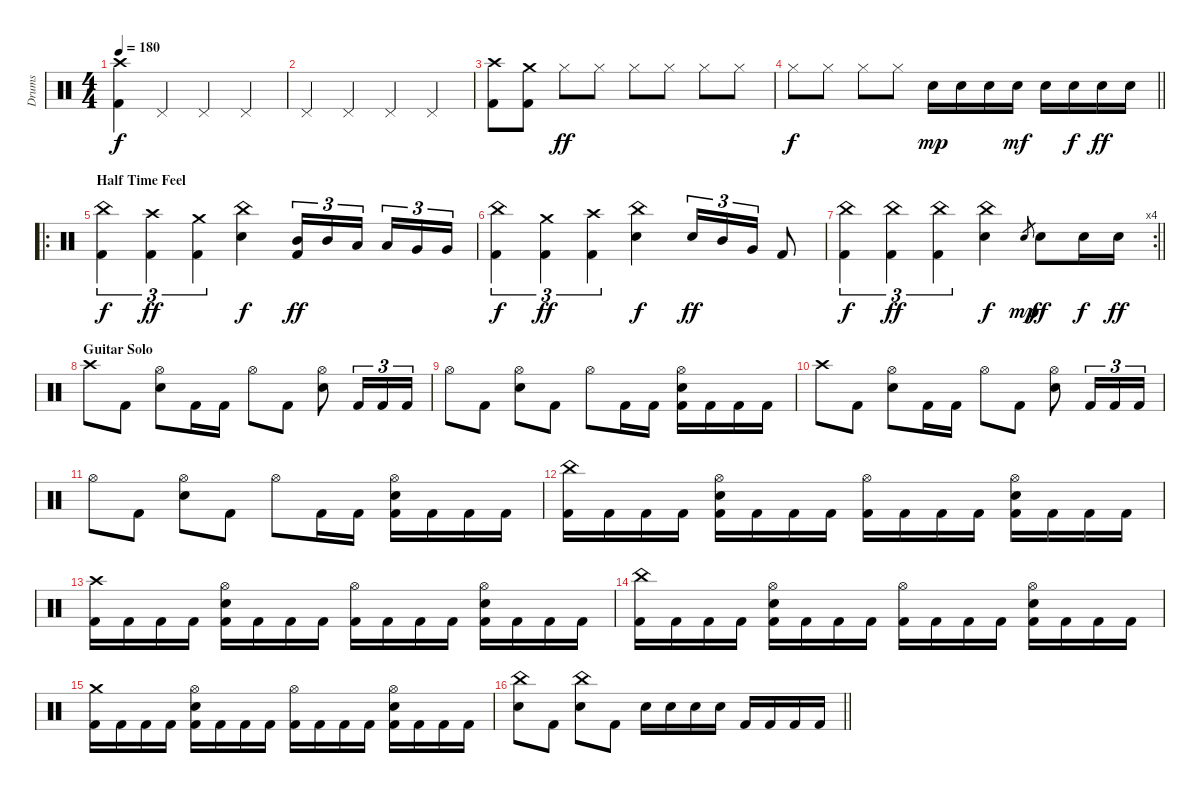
\track ("Drums" "Drums") {instrument percussion}
\staff {score}
\articulation defaults
\ts (4 4)
\tempo 180
\clef neutral
\ks c
("Kick (hit) 2" "Crash high (hit)").4{dy f} "Pedal Hi-Hat (hit)".4 "Pedal Hi-Hat (hit)".4 "Pedal Hi-Hat (hit)".4 |
"Pedal Hi-Hat (hit)".4 "Pedal Hi-Hat (hit)".4 "Pedal Hi-Hat (hit)".4 "Pedal Hi-Hat (hit)".4 |
("Kick (hit) 2" "Crash high (hit)").8 ("Kick (hit) 2" "Crash medium (hit)").8 "Hi-Hat (closed)".8{dy ff} "Hi-Hat (closed)".8 "Hi-Hat (closed)".8 "Hi-Hat (closed)".8 "Hi-Hat (closed)".8 "Hi-Hat (closed)".8 |
\barLineRight lightlight "Hi-Hat (closed)".8{dy f} "Hi-Hat (closed)".8 "Hi-Hat (closed)".8 "Hi-Hat (closed)".8 "Snare (hit) 2".16{dy mp} "Snare (hit) 2".16 "Snare (hit) 2".16 "Snare (hit) 2".16{dy mf} "Snare (hit) 2".16 "Snare (hit) 2".16{dy f} "Snare (hit) 2".16{dy ff} "Snare (hit) 2".16
|
\ro
\section ("" "Half Time Feel")
("China (hit)" "Kick (hit) 2").4{tu (3 2) dy f} ("Crash high (hit)" "Kick (hit) 2").4{tu (3 2) dy ff} ("Crash medium (hit)" "Kick (hit) 2").4{tu (3 2)} ("China (hit)" "Snare (hit) 2").4{dy f} ("Kick (hit) 2" "Mid Tom (hit)").16{tu (3 2) dy ff} "Mid Tom (hit)".16{tu (3 2)} "Low Tom (hit)".16{tu (3 2) beam splitsecondary} "Low Tom (hit)".16{tu (3 2)} "Very Low Tom (hit)".16{tu (3 2)} "Very Low Tom (hit)".16{tu (3 2)} |
("China (hit)" "Kick (hit) 2").4{tu (3 2) dy f} ("Crash medium (hit)" "Kick (hit) 2").4{tu (3 2) dy ff} ("Crash high (hit)" "Kick (hit) 2").4{tu (3 2)} ("China (hit)" "Snare (hit) 2").4{dy f} "Snare (hit) 2".16{tu (3 2) dy ff} "Mid Tom (hit)".16{tu (3 2)} "Very Low Tom (hit)".16{tu (3 2)} "Kick (hit) 2".8 |
\rc 4
\barLineRight lightlight
("China (hit)" "Kick (hit) 2").4{tu (3 2) dy f} ("China (hit)" "Kick (hit) 2").4{tu (3 2) dy ff} ("China (hit)" "Kick (hit) 2").4{tu (3 2)} ("China (hit)" "Snare (hit) 2").4{dy f} "Snare (hit) 2".8{gr dy mp} "Snare (hit) 2".8{dy ff} "Snare (hit) 2".16{dy f} "Snare (hit) 2".16{dy ff} |
\section ("" "Guitar Solo")
"Crash high (hit)".8 "Kick (hit) 2".8 ("Hi-Hat (open)" "Snare (hit) 2").8 "Kick (hit) 2".16 "Kick (hit) 2".16 "Hi-Hat (open)".8 "Kick (hit) 2".8 ("Hi-Hat (open)" "Snare (hit) 2").8 "Kick (hit) 2".16{tu (3 2)} "Kick (hit) 2".16{tu (3 2)} "Kick (hit) 2".16{tu (3 2)} |
"Hi-Hat (open)".8 "Kick (hit) 2".8 ("Hi-Hat (open)" "Snare (hit) 2").8 "Kick (hit) 2".8 "Hi-Hat (open)".8 "Kick (hit) 2".16 "Kick (hit) 2".16 ("Hi-Hat (open)" "Kick (hit) 2" "Snare (hit) 2").16 "Kick (hit) 2".16 "Kick (hit) 2".16 "Kick (hit) 2".16 |
"Crash high (hit)".8 "Kick (hit) 2".8 ("Hi-Hat (open)" "Snare (hit) 2").8 "Kick (hit) 2".16 "Kick (hit) 2".16 "Hi-Hat (open)".8 "Kick (hit) 2".8 ("Hi-Hat (open)" "Snare (hit) 2").8 "Kick (hit) 2".16{tu (3 2)} "Kick (hit) 2".16{tu (3 2)} "Kick (hit) 2".16{tu (3 2)} |
"Hi-Hat (open)".8 "Kick (hit) 2".8 ("Hi-Hat (open)" "Snare (hit) 2").8 "Kick (hit) 2".8 "Hi-Hat (open)".8 "Kick (hit) 2".16 "Kick (hit) 2".16 ("Hi-Hat (open)" "Kick (hit) 2" "Snare (hit) 2").16 "Kick (hit) 2".16 "Kick (hit) 2".16 "Kick (hit) 2".16 |
("China (hit)" "Kick (hit) 2").16 "Kick (hit) 2".16 "Kick (hit) 2".16 "Kick (hit) 2".16 ("Hi-Hat (open)" "Snare (hit) 2" "Kick (hit) 2").16 "Kick (hit) 2".16 "Kick (hit) 2".16 "Kick (hit) 2".16 ("Hi-Hat (open)" "Kick (hit) 2").16 "Kick (hit) 2".16 "Kick (hit) 2".16 "Kick (hit) 2".16 ("Hi-Hat (open)" "Snare (hit) 2" "Kick (hit) 2").16 "Kick (hit) 2".16 "Kick (hit) 2".16 "Kick (hit) 2".16 |
("Crash high (hit)" "Kick (hit) 2").16 "Kick (hit) 2".16 "Kick (hit) 2".16 "Kick (hit) 2".16 ("Hi-Hat (open)" "Snare (hit) 2" "Kick (hit) 2").16 "Kick (hit) 2".16 "Kick (hit) 2".16 "Kick (hit) 2".16 ("Hi-Hat (open)" "Kick (hit) 2").16 "Kick (hit) 2".16 "Kick (hit) 2".16 "Kick (hit) 2".16 ("Hi-Hat (open)" "Snare (hit) 2" "Kick (hit) 2").16 "Kick (hit) 2".16 "Kick (hit) 2".16 "Kick (hit) 2".16 |
("China (hit)" "Kick (hit) 2").16 "Kick (hit) 2".16 "Kick (hit) 2".16 "Kick (hit) 2".16 ("Hi-Hat (open)" "Snare (hit) 2" "Kick (hit) 2").16 "Kick (hit) 2".16 "Kick (hit) 2".16 "Kick (hit) 2".16 ("Hi-Hat (open)" "Kick (hit) 2").16 "Kick (hit) 2".16 "Kick (hit) 2".16 "Kick (hit) 2".16 ("Hi-Hat (open)" "Snare (hit) 2" "Kick (hit) 2").16 "Kick (hit) 2".16 "Kick (hit) 2".16 "Kick (hit) 2".16 |
("Crash medium (hit)" "Kick (hit) 2").16 "Kick (hit) 2".16 "Kick (hit) 2".16 "Kick (hit) 2".16 ("Hi-Hat (open)" "Snare (hit) 2" "Kick (hit) 2").16 "Kick (hit) 2".16 "Kick (hit) 2".16 "Kick (hit) 2".16 ("Hi-Hat (open)" "Kick (hit) 2").16 "Kick (hit) 2".16 "Kick (hit) 2".16 "Kick (hit) 2".16 ("Hi-Hat (open)" "Snare (hit) 2" "Kick (hit) 2").16 "Kick (hit) 2".16 "Kick (hit) 2".16 "Kick (hit) 2".16 |
\barLineRight lightlight
("China (hit)" "Snare (hit) 2").8 "Kick (hit) 2".8 ("China (hit)" "Snare (hit) 2").8 "Kick (hit) 2".8 "Snare (hit) 2".16 "Snare (hit) 2".16 "Snare (hit) 2".16 "Snare (hit) 2".16 "Kick (hit) 2".16 "Kick (hit) 2".16 "Kick (hit) 2".16 "Kick (hit) 2".16
